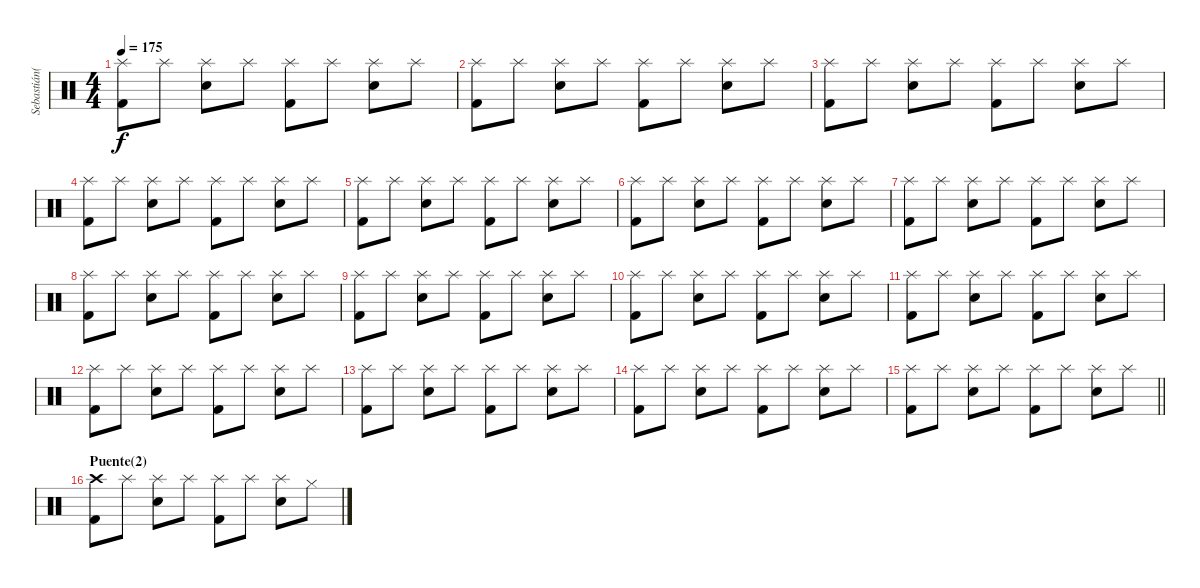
\track ("Sebastián(Bateria)" "Sebastián(") {instrument percussion}
\staff {score}
\articulation defaults
\ts (4 4)
\tempo 175
\clef neutral
\ks c
("Splash (hit)" "Kick (hit) 2").8{dy f} "Splash (hit)".8 ("Splash (hit)" "Snare (hit) 2").8 "Splash (hit)".8 ("Splash (hit)" "Kick (hit) 2").8 "Splash (hit)".8 ("Splash (hit)" "Snare (hit) 2").8 "Splash (hit)".8 |
("Splash (hit)" "Kick (hit) 2").8 "Splash (hit)".8 ("Splash (hit)" "Snare (hit) 2").8 "Splash (hit)".8 ("Splash (hit)" "Kick (hit) 2").8 "Splash (hit)".8 ("Splash (hit)" "Snare (hit) 2").8 "Splash (hit)".8 |
("Splash (hit)" "Kick (hit) 2").8 "Splash (hit)".8 ("Splash (hit)" "Snare (hit) 2").8 "Splash (hit)".8 ("Splash (hit)" "Kick (hit) 2").8 "Splash (hit)".8 ("Splash (hit)" "Snare (hit) 2").8 "Splash (hit)".8 |
("Splash (hit)" "Kick (hit) 2").8 "Splash (hit)".8 ("Splash (hit)" "Snare (hit) 2").8 "Splash (hit)".8 ("Splash (hit)" "Kick (hit) 2").8 "Splash (hit)".8 ("Splash (hit)" "Snare (hit) 2").8 "Splash (hit)".8 |
("Splash (hit)" "Kick (hit) 2").8 "Splash (hit)".8 ("Splash (hit)" "Snare (hit) 2").8 "Splash (hit)".8 ("Splash (hit)" "Kick (hit) 2").8 "Splash (hit)".8 ("Splash (hit)" "Snare (hit) 2").8 "Splash (hit)".8 |
("Splash (hit)" "Kick (hit) 2").8 "Splash (hit)".8 ("Splash (hit)" "Snare (hit) 2").8 "Splash (hit)".8 ("Splash (hit)" "Kick (hit) 2").8 "Splash (hit)".8 ("Splash (hit)" "Snare (hit) 2").8 "Splash (hit)".8 |
("Splash (hit)" "Kick (hit) 2").8 "Splash (hit)".8 ("Splash (hit)" "Snare (hit) 2").8 "Splash (hit)".8 ("Splash (hit)" "Kick (hit) 2").8 "Splash (hit)".8 ("Splash (hit)" "Snare (hit) 2").8 "Splash (hit)".8 |
("Splash (hit)" "Kick (hit) 2").8 "Splash (hit)".8 ("Splash (hit)" "Snare (hit) 2").8 "Splash (hit)".8 ("Splash (hit)" "Kick (hit) 2").8 "Splash (hit)".8 ("Splash (hit)" "Snare (hit) 2").8 "Splash (hit)".8 |
("Splash (hit)" "Kick (hit) 2").8 "Splash (hit)".8 ("Splash (hit)" "Snare (hit) 2").8 "Splash (hit)".8 ("Splash (hit)" "Kick (hit) 2").8 "Splash (hit)".8 ("Splash (hit)" "Snare (hit) 2").8 "Splash (hit)".8 |
("Splash (hit)" "Kick (hit) 2").8 "Splash (hit)".8 ("Splash (hit)" "Snare (hit) 2").8 "Splash (hit)".8 ("Splash (hit)" "Kick (hit) 2").8 "Splash (hit)".8 ("Splash (hit)" "Snare (hit) 2").8 "Splash (hit)".8 |
("Splash (hit)" "Kick (hit) 2").8 "Splash (hit)".8 ("Splash (hit)" "Snare (hit) 2").8 "Splash (hit)".8 ("Splash (hit)" "Kick (hit) 2").8 "Splash (hit)".8 ("Splash (hit)" "Snare (hit) 2").8 "Splash (hit)".8 |
("Splash (hit)" "Kick (hit) 2").8 "Splash (hit)".8 ("Splash (hit)" "Snare (hit) 2").8 "Splash (hit)".8 ("Splash (hit)" "Kick (hit) 2").8 "Splash (hit)".8 ("Splash (hit)" "Snare (hit) 2").8 "Splash (hit)".8 |
("Splash (hit)" "Kick (hit) 2").8 "Splash (hit)".8 ("Splash (hit)" "Snare (hit) 2").8 "Splash (hit)".8 ("Splash (hit)" "Kick (hit) 2").8 "Splash (hit)".8 ("Splash (hit)" "Snare (hit) 2").8 "Splash (hit)".8 |
("Splash (hit)" "Kick (hit) 2").8 "Splash (hit)".8 ("Splash (hit)" "Snare (hit) 2").8 "Splash (hit)".8 ("Splash (hit)" "Kick (hit) 2").8 "Splash (hit)".8 ("Splash (hit)" "Snare (hit) 2").8 "Splash (hit)".8 |
\barLineRight lightlight
("Splash (hit)" "Kick (hit) 2").8 "Splash (hit)".8 ("Splash (hit)" "Snare (hit) 2").8 "Splash (hit)".8 ("Splash (hit)" "Kick (hit) 2").8 "Splash (hit)".8 ("Splash (hit)" "Snare (hit) 2").8 "Splash (hit)".8 |
\section ("" "Puente(2)")
("Crash high (hit)" "Kick (hit) 2").8 "Splash (hit)".8 ("Splash (hit)" "Snare (hit) 2").8 "Splash (hit)".8 ("Splash (hit)" "Kick (hit) 2").8 "Splash (hit)".8 ("Splash (hit)" "Snare (hit) 2").8 "Hi-Hat (closed)".8
